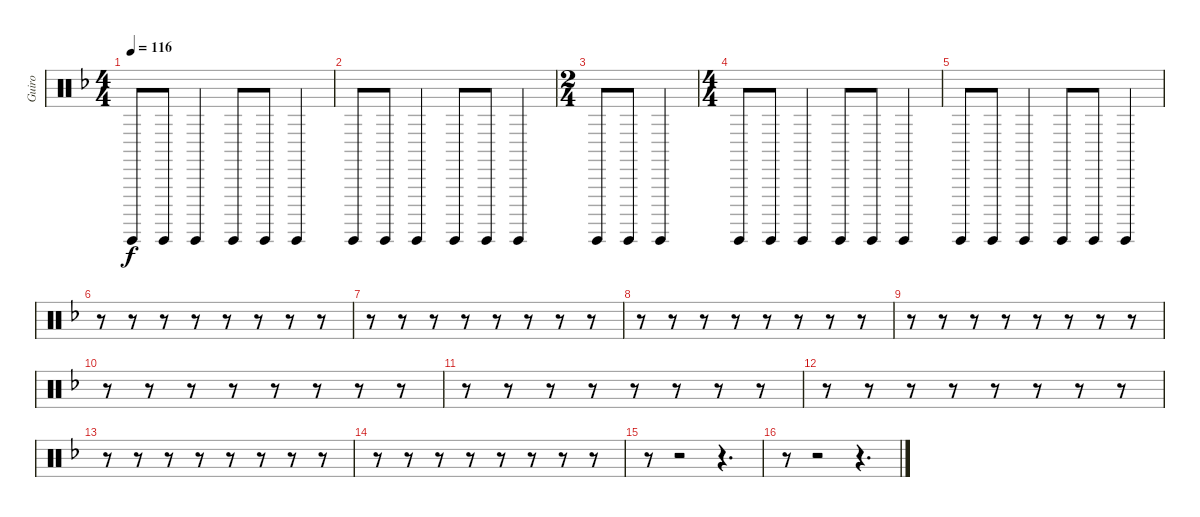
\track ("Guiro" "Guiro") {instrument percussion}
\staff {score}
\articulation defaults
\ts (4 4)
\tempo 116
\clef neutral
\ks dminor "Guiro (hit)".8{dy f} "Guiro (hit)".8 "Guiro (hit)".4 "Guiro (hit)".8 "Guiro (hit)".8 "Guiro (hit)".4
|
"Guiro (hit)".8 "Guiro (hit)".8 "Guiro (hit)".4 "Guiro (hit)".8 "Guiro (hit)".8 "Guiro (hit)".4 |
\ts (2 4)
"Guiro (hit)".8 "Guiro (hit)".8 "Guiro (hit)".4 |
\ts (4 4)
"Guiro (hit)".8 "Guiro (hit)".8 "Guiro (hit)".4 "Guiro (hit)".8 "Guiro (hit)".8 "Guiro (hit)".4 |
"Guiro (hit)".8 "Guiro (hit)".8 "Guiro (hit)".4 "Guiro (hit)".8 "Guiro (hit)".8 "Guiro (hit)".4 |
r.8 r.8 r.8 r.8 r.8 r.8 r.8 r.8 |
r.8 r.8 r.8 r.8 r.8 r.8 r.8 r.8 |
r.8 r.8 r.8 r.8 r.8 r.8 r.8 r.8 |
r.8 r.8 r.8 r.8 r.8 r.8 r.8 r.8 |
r.8 r.8 r.8 r.8 r.8 r.8 r.8 r.8 |
r.8 r.8 r.8 r.8 r.8 r.8 r.8 r.8 |
r.8 r.8 r.8 r.8 r.8 r.8 r.8 r.8 |
r.8 r.8 r.8 r.8 r.8 r.8 r.8 r.8 |
r.8 r.8 r.8 r.8 r.8 r.8 r.8 r.8 |
r.8 r.2 r.4{d} |
r.8 r.2 r.4{d}
